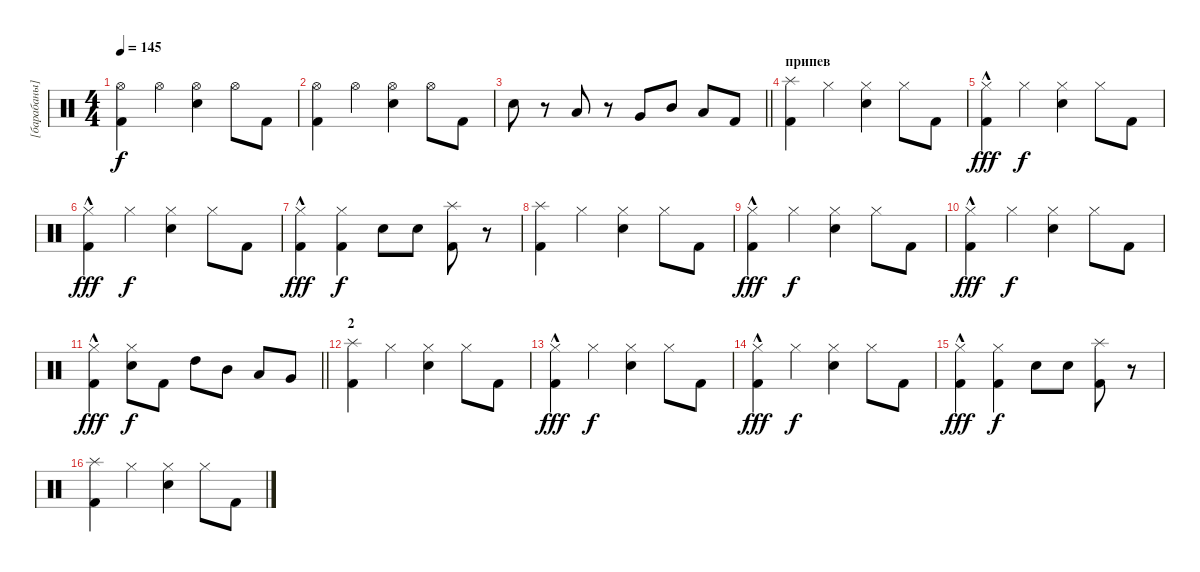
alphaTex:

\track ("[барабаны]" "[барабаны]") {instrument percussion}
\staff
\articulation defaults
\ts (4 4)
\tempo 145
\clef neutral
\ks c
("Hi-Hat (open)" "Kick (hit) 2").4{dy f} "Hi-Hat (open)".4 ("Hi-Hat (open)" "Electric Snare (hit)").4 "Hi-Hat (open)".8 "Kick (hit) 2".8 |
("Hi-Hat (open)" "Kick (hit) 2").4 "Hi-Hat (open)".4 ("Hi-Hat (open)" "Electric Snare (hit)").4 "Hi-Hat (open)".8 "Kick (hit) 2".8 |
\barLineRight lightlight "Electric Snare (hit)".8
r.8 "Low Tom (hit)".8 r.8 "Very Low Tom (hit)".8 "Mid Tom (hit)".8 "Low Tom (hit)".8 "Kick (hit) 2".8 |
\section ("" "припев")
("Splash (hit)" "Kick (hit) 2").4 "Hi-Hat (closed)".4 ("Hi-Hat (closed)" "Electric Snare (hit)").4 "Hi-Hat (closed)".8 "Kick (hit) 2".8 |
("Hi-Hat (closed)"{hac} "Kick (hit) 2").4{dy fff} "Hi-Hat (closed)".4{dy f} ("Hi-Hat (closed)" "Electric Snare (hit)").4 "Hi-Hat (closed)".8 "Kick (hit) 2".8 |
("Hi-Hat (closed)"{hac} "Kick (hit) 2").4{dy fff} "Hi-Hat (closed)".4{dy f} ("Hi-Hat (closed)" "Electric Snare (hit)").4 "Hi-Hat (closed)".8 "Kick (hit) 2".8 |
("Hi-Hat (closed)"{hac} "Kick (hit) 2").4{dy fff} ("Hi-Hat (closed)" "Kick (hit) 2").4{dy f} "Electric Snare (hit)".8 "Electric Snare (hit)".8 ("Splash (hit)" "Kick (hit) 2").8 r.8 |
("Splash (hit)" "Kick (hit) 2").4 "Hi-Hat (closed)".4 ("Hi-Hat (closed)" "Electric Snare (hit)").4 "Hi-Hat (closed)".8 "Kick (hit) 2".8 |
("Hi-Hat (closed)"{hac} "Kick (hit) 2").4{dy fff} "Hi-Hat (closed)".4{dy f} ("Hi-Hat (closed)" "Electric Snare (hit)").4 "Hi-Hat (closed)".8 "Kick (hit) 2".8 |
("Hi-Hat (closed)"{hac} "Kick (hit) 2").4{dy fff} "Hi-Hat (closed)".4{dy f} ("Hi-Hat (closed)" "Electric Snare (hit)").4 "Hi-Hat (closed)".8 "Kick (hit) 2".8 |
\barLineRight lightlight
("Hi-Hat (closed)"{hac} "Kick (hit) 2").4{dy fff} ("Hi-Hat (closed)" "Electric Snare (hit)").8{dy f} "Kick (hit) 2".8 "High Tom (hit)".8 "Mid Tom (hit)".8 "Low Tom (hit)".8 "Very Low Tom (hit)".8 |
\section ("" "2")
("Splash (hit)" "Kick (hit) 2").4 "Hi-Hat (closed)".4 ("Hi-Hat (closed)" "Electric Snare (hit)").4 "Hi-Hat (closed)".8 "Kick (hit) 2".8 |
("Hi-Hat (closed)"{hac} "Kick (hit) 2").4{dy fff} "Hi-Hat (closed)".4{dy f} ("Hi-Hat (closed)" "Electric Snare (hit)").4 "Hi-Hat (closed)".8 "Kick (hit) 2".8 |
("Hi-Hat (closed)"{hac} "Kick (hit) 2").4{dy fff} "Hi-Hat (closed)".4{dy f} ("Hi-Hat (closed)" "Electric Snare (hit)").4 "Hi-Hat (closed)".8 "Kick (hit) 2".8 |
("Hi-Hat (closed)"{hac} "Kick (hit) 2").4{dy fff} ("Hi-Hat (closed)" "Kick (hit) 2").4{dy f} "Electric Snare (hit)".8 "Electric Snare (hit)".8 ("Splash (hit)" "Kick (hit) 2").8 r.8 |
("Splash (hit)" "Kick (hit) 2").4 "Hi-Hat (closed)".4 ("Hi-Hat (closed)" "Electric Snare (hit)").4 "Hi-Hat (closed)".8 "Kick (hit) 2".8
